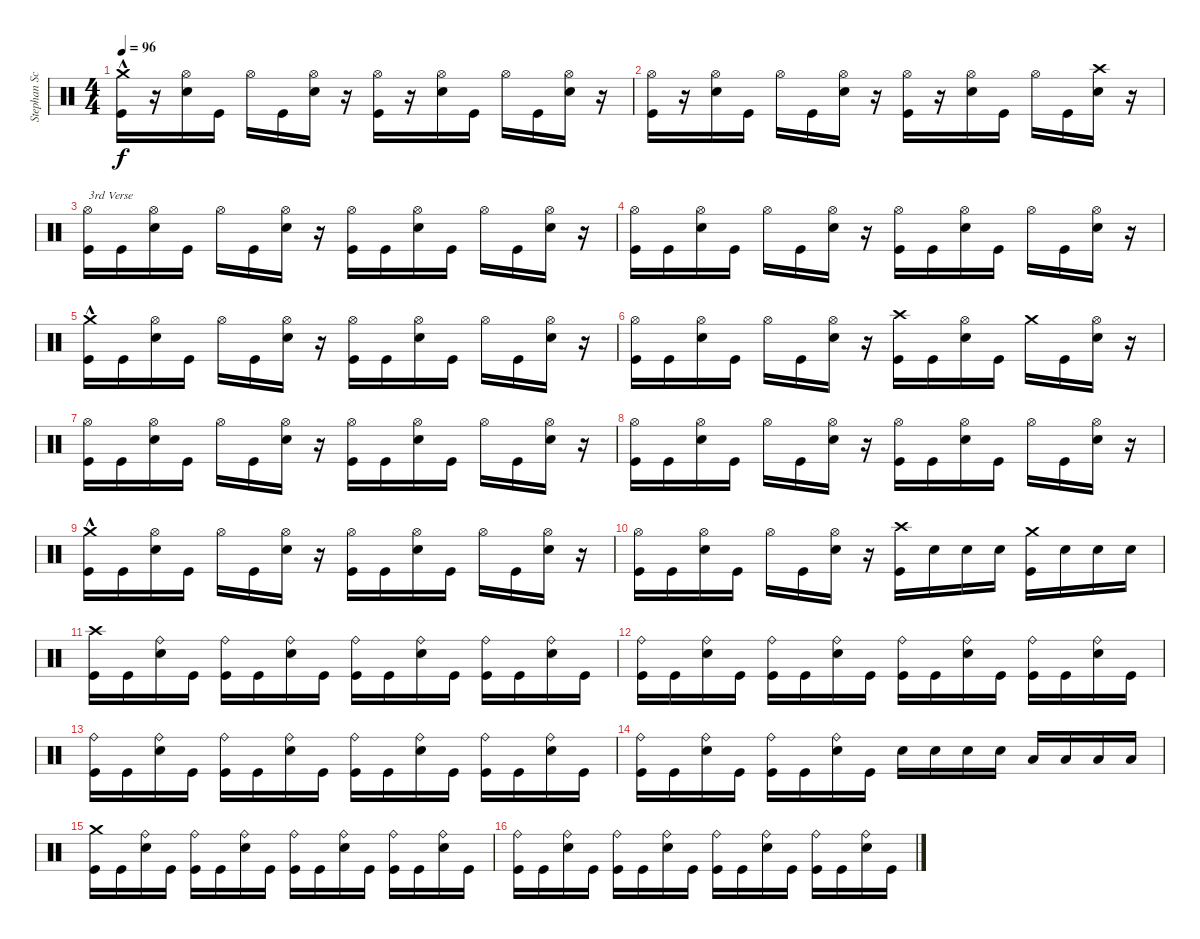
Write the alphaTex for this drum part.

\track ("Stephan Schwarzmann" "Stephan Sc") {instrument percussion}
\staff {score}
\articulation defaults
\ts (4 4)
\tempo 96
\clef neutral
\ks c
("Kick (hit)" "Crash medium (hit)"{hac}).16{dy f} r.16 ("Snare (hit) 2" "Hi-Hat (open)").16 "Kick (hit)".16 "Hi-Hat (open)".16 "Kick (hit)".16 ("Snare (hit) 2" "Hi-Hat (open)").16 r.16 ("Kick (hit)" "Hi-Hat (open)").16 r.16 ("Snare (hit) 2" "Hi-Hat (open)").16 "Kick (hit)".16 "Hi-Hat (open)".16 "Kick (hit)".16 ("Snare (hit) 2" "Hi-Hat (open)").16 r.16 |
("Kick (hit)" "Hi-Hat (open)").16 r.16 ("Snare (hit) 2" "Hi-Hat (open)").16 "Kick (hit)".16 "Hi-Hat (open)".16 "Kick (hit)".16 ("Snare (hit) 2" "Hi-Hat (open)").16 r.16 ("Kick (hit)" "Hi-Hat (open)").16 r.16 ("Snare (hit) 2" "Hi-Hat (open)").16 "Kick (hit)".16 "Hi-Hat (open)".16 "Kick (hit)".16 ("Snare (hit) 2" "Crash high (hit)").16 r.16 |
("Hi-Hat (open)" "Kick (hit)").16{txt "3rd Verse"} "Kick (hit)".16 ("Snare (hit) 2" "Hi-Hat (open)").16 "Kick (hit)".16 "Hi-Hat (open)".16 "Kick (hit)".16 ("Hi-Hat (open)" "Snare (hit) 2").16 r.16 ("Hi-Hat (open)" "Kick (hit)").16 "Kick (hit)".16 ("Snare (hit) 2" "Hi-Hat (open)").16 "Kick (hit)".16 "Hi-Hat (open)".16 "Kick (hit)".16 ("Hi-Hat (open)" "Snare (hit) 2").16 r.16 |
("Hi-Hat (open)" "Kick (hit)").16 "Kick (hit)".16 ("Snare (hit) 2" "Hi-Hat (open)").16 "Kick (hit)".16 "Hi-Hat (open)".16 "Kick (hit)".16 ("Hi-Hat (open)" "Snare (hit) 2").16 r.16 ("Hi-Hat (open)" "Kick (hit)").16 "Kick (hit)".16 ("Snare (hit) 2" "Hi-Hat (open)").16 "Kick (hit)".16 "Hi-Hat (open)".16 "Kick (hit)".16 ("Hi-Hat (open)" "Snare (hit) 2").16 r.16 |
("Kick (hit)" "Crash medium (hit)"{hac}).16 "Kick (hit)".16 ("Snare (hit) 2" "Hi-Hat (open)").16 "Kick (hit)".16 "Hi-Hat (open)".16 "Kick (hit)".16 ("Hi-Hat (open)" "Snare (hit) 2").16 r.16 ("Hi-Hat (open)" "Kick (hit)").16 "Kick (hit)".16 ("Snare (hit) 2" "Hi-Hat (open)").16 "Kick (hit)".16 "Hi-Hat (open)".16 "Kick (hit)".16 ("Hi-Hat (open)" "Snare (hit) 2").16 r.16 |
("Hi-Hat (open)" "Kick (hit)").16 "Kick (hit)".16 ("Snare (hit) 2" "Hi-Hat (open)").16 "Kick (hit)".16 "Hi-Hat (open)".16 "Kick (hit)".16 ("Hi-Hat (open)" "Snare (hit) 2").16 r.16 ("Kick (hit)" "Crash high (hit)").16 "Kick (hit)".16 ("Snare (hit) 2" "Hi-Hat (open)").16 "Kick (hit)".16 "Crash medium (hit)".16 "Kick (hit)".16 ("Hi-Hat (open)" "Snare (hit) 2").16 r.16 |
("Hi-Hat (open)" "Kick (hit)").16 "Kick (hit)".16 ("Snare (hit) 2" "Hi-Hat (open)").16 "Kick (hit)".16 "Hi-Hat (open)".16 "Kick (hit)".16 ("Hi-Hat (open)" "Snare (hit) 2").16 r.16 ("Hi-Hat (open)" "Kick (hit)").16 "Kick (hit)".16 ("Snare (hit) 2" "Hi-Hat (open)").16 "Kick (hit)".16 "Hi-Hat (open)".16 "Kick (hit)".16 ("Hi-Hat (open)" "Snare (hit) 2").16 r.16 |
("Hi-Hat (open)" "Kick (hit)").16 "Kick (hit)".16 ("Snare (hit) 2" "Hi-Hat (open)").16 "Kick (hit)".16 "Hi-Hat (open)".16 "Kick (hit)".16 ("Hi-Hat (open)" "Snare (hit) 2").16 r.16 ("Hi-Hat (open)" "Kick (hit)").16 "Kick (hit)".16 ("Snare (hit) 2" "Hi-Hat (open)").16 "Kick (hit)".16 "Hi-Hat (open)".16 "Kick (hit)".16 ("Hi-Hat (open)" "Snare (hit) 2").16 r.16 |
("Kick (hit)" "Crash medium (hit)"{hac}).16 "Kick (hit)".16 ("Snare (hit) 2" "Hi-Hat (open)").16 "Kick (hit)".16 "Hi-Hat (open)".16 "Kick (hit)".16 ("Hi-Hat (open)" "Snare (hit) 2").16 r.16 ("Hi-Hat (open)" "Kick (hit)").16 "Kick (hit)".16 ("Snare (hit) 2" "Hi-Hat (open)").16 "Kick (hit)".16 "Hi-Hat (open)".16 "Kick (hit)".16 ("Hi-Hat (open)" "Snare (hit) 2").16 r.16 |
("Hi-Hat (open)" "Kick (hit)").16 "Kick (hit)".16 ("Snare (hit) 2" "Hi-Hat (open)").16 "Kick (hit)".16 "Hi-Hat (open)".16 "Kick (hit)".16 ("Hi-Hat (open)" "Snare (hit) 2").16 r.16 ("Kick (hit)" "Crash high (hit)").16 "Snare (hit) 2".16 "Snare (hit) 2".16 "Snare (hit) 2".16 ("Crash medium (hit)" "Kick (hit)").16 "Snare (hit) 2".16 "Snare (hit) 2".16 "Snare (hit) 2".16 |
("Kick (hit)" "Crash high (hit)").16 "Kick (hit)".16 ("Snare (hit) 2" "Ride (bell)").16 "Kick (hit)".16 ("Kick (hit)" "Ride (bell)").16 "Kick (hit)".16 ("Snare (hit) 2" "Ride (bell)").16 "Kick (hit)".16 ("Kick (hit)" "Ride (bell)").16 "Kick (hit)".16 ("Snare (hit) 2" "Ride (bell)").16 "Kick (hit)".16 ("Kick (hit)" "Ride (bell)").16 "Kick (hit)".16 ("Snare (hit) 2" "Ride (bell)").16 "Kick (hit)".16 |
("Kick (hit)" "Ride (bell)").16 "Kick (hit)".16 ("Snare (hit) 2" "Ride (bell)").16 "Kick (hit)".16 ("Kick (hit)" "Ride (bell)").16 "Kick (hit)".16 ("Snare (hit) 2" "Ride (bell)").16 "Kick (hit)".16 ("Kick (hit)" "Ride (bell)").16 "Kick (hit)".16 ("Snare (hit) 2" "Ride (bell)").16 "Kick (hit)".16 ("Kick (hit)" "Ride (bell)").16 "Kick (hit)".16 ("Snare (hit) 2" "Ride (bell)").16 "Kick (hit)".16 |
("Kick (hit)" "Ride (bell)").16 "Kick (hit)".16 ("Snare (hit) 2" "Ride (bell)").16 "Kick (hit)".16 ("Kick (hit)" "Ride (bell)").16 "Kick (hit)".16 ("Snare (hit) 2" "Ride (bell)").16 "Kick (hit)".16 ("Kick (hit)" "Ride (bell)").16 "Kick (hit)".16 ("Snare (hit) 2" "Ride (bell)").16 "Kick (hit)".16 ("Kick (hit)" "Ride (bell)").16 "Kick (hit)".16 ("Snare (hit) 2" "Ride (bell)").16 "Kick (hit)".16 |
("Kick (hit)" "Ride (bell)").16 "Kick (hit)".16 ("Snare (hit) 2" "Ride (bell)").16 "Kick (hit)".16 ("Kick (hit)" "Ride (bell)").16 "Kick (hit)".16 ("Snare (hit) 2" "Ride (bell)").16 "Kick (hit)".16 "Snare (hit) 2".16 "Snare (hit) 2".16 "Snare (hit) 2".16 "Snare (hit) 2".16 "Low Tom (hit)".16 "Low Tom (hit)".16 "Low Floor Tom (hit)".16 "Low Floor Tom (hit)".16 |
("Kick (hit)" "Crash medium (hit)").16 "Kick (hit)".16 ("Snare (hit) 2" "Ride (bell)").16 "Kick (hit)".16 ("Kick (hit)" "Ride (bell)").16 "Kick (hit)".16 ("Snare (hit) 2" "Ride (bell)").16 "Kick (hit)".16 ("Kick (hit)" "Ride (bell)").16 "Kick (hit)".16 ("Snare (hit) 2" "Ride (bell)").16 "Kick (hit)".16 ("Kick (hit)" "Ride (bell)").16 "Kick (hit)".16 ("Snare (hit) 2" "Ride (bell)").16 "Kick (hit)".16 |
("Kick (hit)" "Ride (bell)").16 "Kick (hit)".16 ("Snare (hit) 2" "Ride (bell)").16 "Kick (hit)".16 ("Kick (hit)" "Ride (bell)").16 "Kick (hit)".16 ("Snare (hit) 2" "Ride (bell)").16 "Kick (hit)".16 ("Kick (hit)" "Ride (bell)").16 "Kick (hit)".16 ("Snare (hit) 2" "Ride (bell)").16 "Kick (hit)".16 ("Kick (hit)" "Ride (bell)").16 "Kick (hit)".16 ("Snare (hit) 2" "Ride (bell)").16 "Kick (hit)".16
